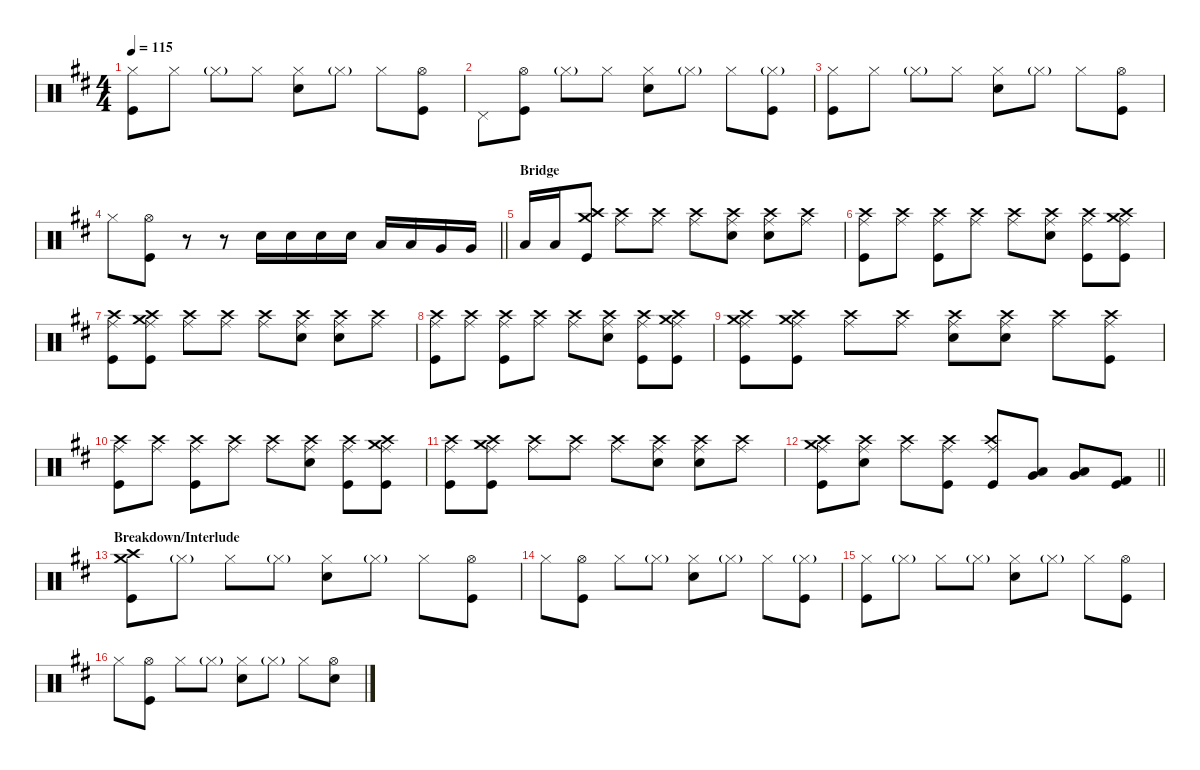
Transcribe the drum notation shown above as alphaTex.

\defaultSystemsLayout 4
\hideDynamics
\bracketExtendMode nobrackets
\singleTrackTrackNamePolicy hidden
\multiTrackTrackNamePolicy hidden
\firstSystemTrackNameMode fullname
\firstSystemTrackNameOrientation horizontal
\otherSystemsTrackNameOrientation horizontal
\track ("Aaron Harris" "drm.") {instrument percussion}
\staff {score}
\articulation defaults
\ts (4 4)
\tempo 115
\clef neutral
\ks bminor
("Hi-Hat (closed)"{acc forcenatural} "Kick (hit)"{acc forcenatural}).8{dy f beam Down} "Hi-Hat (closed)"{acc forcenatural}.8{beam Down} "Hi-Hat (closed)"{g acc forcenatural}.8{dy mf beam Down} "Hi-Hat (closed)"{acc forcenatural}.8{dy f beam Down} ("Hi-Hat (closed)"{acc forcenatural} "Snare (hit) 2"{acc forcenatural}).8{beam Down} "Hi-Hat (closed)"{g acc forcenatural}.8{dy mf beam Down} "Hi-Hat (closed)"{acc forcenatural}.8{dy f beam Down} ("Hi-Hat (open)"{acc forcenatural} "Kick (hit)"{acc forcenatural}).8{beam Down} |
"Pedal Hi-Hat (hit)"{acc forcenatural}.8{beam Down} ("Hi-Hat (open)"{acc forcenatural} "Kick (hit)"{acc forcenatural}).8{beam Down} "Hi-Hat (closed)"{g acc forcenatural}.8{dy mf beam Down} "Hi-Hat (closed)"{acc forcenatural}.8{dy f beam Down} ("Hi-Hat (closed)"{acc forcenatural} "Snare (hit) 2"{acc forcenatural}).8{beam Down} "Hi-Hat (closed)"{g acc forcenatural}.8{dy mf beam Down} "Hi-Hat (closed)"{acc forcenatural}.8{dy f beam Down} ("Hi-Hat (closed)"{g acc forcenatural} "Kick (hit)"{acc forcenatural}).8{beam Down} |
("Hi-Hat (closed)"{acc forcenatural} "Kick (hit)"{acc forcenatural}).8{beam Down} "Hi-Hat (closed)"{acc forcenatural}.8{beam Down} "Hi-Hat (closed)"{g acc forcenatural}.8{dy mf beam Down} "Hi-Hat (closed)"{acc forcenatural}.8{dy f beam Down} ("Hi-Hat (closed)"{acc forcenatural} "Snare (hit) 2"{acc forcenatural}).8{beam Down} "Hi-Hat (closed)"{g acc forcenatural}.8{dy mf beam Down} "Hi-Hat (closed)"{acc forcenatural}.8{dy f beam Down} ("Hi-Hat (open)"{acc forcenatural} "Kick (hit)"{acc forcenatural}).8{beam Down} |
\barLineRight lightlight "Hi-Hat (closed)"{acc forcenatural}.8{beam Down}
("Hi-Hat (open)"{acc forcenatural} "Kick (hit)"{acc forcenatural}).8{beam Down} r.8{beam Down} r.8{beam Down} "Snare (hit) 2"{acc forcenatural}.16{beam Down} "Snare (hit) 2"{acc forcenatural}.16{beam Down} "Snare (hit) 2"{acc forcenatural}.16{beam Down} "Snare (hit) 2"{acc forcenatural}.16{beam Down} "Low Tom (hit)"{acc forcenatural}.16{beam Up} "Low Tom (hit)"{acc forcenatural}.16{beam Up} "Very Low Tom (hit)"{acc forcenatural}.16{beam Up} "Very Low Tom (hit)"{acc forcenatural}.16{beam Up} |
\section ("" "Bridge")
"Low Floor Tom (hit)"{acc forcenatural}.16{beam Up} "Low Floor Tom (hit)"{acc forcenatural}.16{beam Up} ("Crash medium (hit)"{acc forcenatural} "Crash high (hit)"{acc forcenatural} "Kick (hit)"{acc forcenatural}).8{beam Up} ("Crash high (hit)"{acc forcenatural} "Ride (middle)"{acc forcenatural}).8{dy mp beam Down} ("Crash high (hit)"{acc forcenatural} "Ride (middle)"{acc forcenatural}).8{beam Down} ("Crash high (hit)"{acc forcenatural} "Ride (middle)"{acc forcenatural}).8{beam Down} ("Crash high (hit)"{acc forcenatural} "Ride (middle)"{acc forcenatural} "Snare (hit) 2"{acc forcenatural}).8{dy mf beam Down} ("Crash high (hit)"{acc forcenatural} "Ride (middle)"{acc forcenatural} "Snare (hit) 2"{acc forcenatural}).8{dy mp beam Down} ("Crash high (hit)"{acc forcenatural} "Ride (middle)"{acc forcenatural}).8{beam Down} |
("Crash high (hit)"{acc forcenatural} "Ride (middle)"{acc forcenatural} "Kick (hit)"{acc forcenatural}).8{dy p beam Down} ("Crash high (hit)"{acc forcenatural} "Ride (middle)"{acc forcenatural}).8{dy mp beam Down} ("Crash high (hit)"{acc forcenatural} "Ride (middle)"{acc forcenatural} "Kick (hit)"{acc forcenatural}).8{beam Down} ("Crash high (hit)"{acc forcenatural} "Ride (middle)"{acc forcenatural}).8{beam Down} ("Crash high (hit)"{acc forcenatural} "Ride (middle)"{acc forcenatural}).8{dy p beam Down} ("Crash high (hit)"{acc forcenatural} "Ride (middle)"{acc forcenatural} "Snare (hit) 2"{acc forcenatural}).8{dy mf beam Down} ("Crash high (hit)"{acc forcenatural} "Ride (middle)"{acc forcenatural} "Kick (hit)"{acc forcenatural}).8{dy mp beam Down} ("Crash medium (hit)"{acc forcenatural} "Crash high (hit)"{acc forcenatural} "Ride (middle)"{acc forcenatural} "Kick (hit)"{acc forcenatural}).8{beam Down} |
("Crash high (hit)"{acc forcenatural} "Ride (middle)"{acc forcenatural} "Kick (hit)"{acc forcenatural}).8{dy p beam Down} ("Crash medium (hit)"{acc forcenatural} "Crash high (hit)"{acc forcenatural} "Ride (middle)"{acc forcenatural} "Kick (hit)"{acc forcenatural}).8{dy f beam Down} ("Crash high (hit)"{acc forcenatural} "Ride (middle)"{acc forcenatural}).8{dy mp beam Down} ("Crash high (hit)"{acc forcenatural} "Ride (middle)"{acc forcenatural}).8{beam Down} ("Crash high (hit)"{acc forcenatural} "Ride (middle)"{acc forcenatural}).8{beam Down} ("Crash high (hit)"{acc forcenatural} "Ride (middle)"{acc forcenatural} "Snare (hit) 2"{acc forcenatural}).8{beam Down} ("Crash high (hit)"{acc forcenatural} "Ride (middle)"{acc forcenatural} "Snare (hit) 2"{acc forcenatural}).8{beam Down} ("Crash high (hit)"{acc forcenatural} "Ride (middle)"{acc forcenatural}).8{beam Down} |
("Crash high (hit)"{acc forcenatural} "Ride (middle)"{acc forcenatural} "Kick (hit)"{acc forcenatural}).8{dy p beam Down} ("Crash high (hit)"{acc forcenatural} "Ride (middle)"{acc forcenatural}).8{dy mp beam Down} ("Crash high (hit)"{acc forcenatural} "Ride (middle)"{acc forcenatural} "Kick (hit)"{acc forcenatural}).8{beam Down} ("Crash high (hit)"{acc forcenatural} "Ride (middle)"{acc forcenatural}).8{beam Down} ("Crash high (hit)"{acc forcenatural} "Ride (middle)"{acc forcenatural}).8{dy p beam Down} ("Crash high (hit)"{acc forcenatural} "Ride (middle)"{acc forcenatural} "Snare (hit) 2"{acc forcenatural}).8{dy mf beam Down} ("Crash high (hit)"{acc forcenatural} "Ride (middle)"{acc forcenatural} "Kick (hit)"{acc forcenatural}).8{dy mp beam Down} ("Crash medium (hit)"{acc forcenatural} "Crash high (hit)"{acc forcenatural} "Ride (middle)"{acc forcenatural} "Kick (hit)"{acc forcenatural}).8{beam Down} |
("Crash medium (hit)"{acc forcenatural} "Crash high (hit)"{acc forcenatural} "Ride (middle)"{acc forcenatural} "Kick (hit)"{acc forcenatural}).8{dy f beam Down} ("Crash medium (hit)"{acc forcenatural} "Crash high (hit)"{acc forcenatural} "Ride (middle)"{acc forcenatural} "Kick (hit)"{acc forcenatural}).8{beam Down} ("Crash high (hit)"{acc forcenatural} "Ride (middle)"{acc forcenatural}).8{dy mp beam Down} ("Crash high (hit)"{acc forcenatural} "Ride (middle)"{acc forcenatural}).8{beam Down} ("Crash high (hit)"{acc forcenatural} "Ride (middle)"{acc forcenatural} "Snare (hit) 2"{acc forcenatural}).8{beam Down} ("Crash high (hit)"{acc forcenatural} "Ride (middle)"{acc forcenatural} "Snare (hit) 2"{acc forcenatural}).8{beam Down} ("Crash high (hit)"{acc forcenatural} "Ride (middle)"{acc forcenatural}).8{beam Down} ("Crash high (hit)"{acc forcenatural} "Ride (middle)"{acc forcenatural} "Kick (hit)"{acc forcenatural}).8{beam Down} |
("Crash high (hit)"{acc forcenatural} "Ride (middle)"{acc forcenatural} "Kick (hit)"{acc forcenatural}).8{dy p beam Down} ("Crash high (hit)"{acc forcenatural} "Ride (middle)"{acc forcenatural}).8{dy mp beam Down} ("Crash high (hit)"{acc forcenatural} "Ride (middle)"{acc forcenatural} "Kick (hit)"{acc forcenatural}).8{beam Down} ("Crash high (hit)"{acc forcenatural} "Ride (middle)"{acc forcenatural}).8{beam Down} ("Crash high (hit)"{acc forcenatural} "Ride (middle)"{acc forcenatural}).8{dy p beam Down} ("Crash high (hit)"{acc forcenatural} "Ride (middle)"{acc forcenatural} "Snare (hit) 2"{acc forcenatural}).8{dy mf beam Down} ("Crash high (hit)"{acc forcenatural} "Ride (middle)"{acc forcenatural} "Kick (hit)"{acc forcenatural}).8{dy mp beam Down} ("Crash medium (hit)"{acc forcenatural} "Crash high (hit)"{acc forcenatural} "Ride (middle)"{acc forcenatural} "Kick (hit)"{acc forcenatural}).8{beam Down} |
("Crash high (hit)"{acc forcenatural} "Ride (middle)"{acc forcenatural} "Kick (hit)"{acc forcenatural}).8{dy p beam Down} ("Crash medium (hit)"{acc forcenatural} "Crash high (hit)"{acc forcenatural} "Ride (middle)"{acc forcenatural} "Kick (hit)"{acc forcenatural}).8{dy f beam Down} ("Crash high (hit)"{acc forcenatural} "Ride (middle)"{acc forcenatural}).8{dy mp beam Down} ("Crash high (hit)"{acc forcenatural} "Ride (middle)"{acc forcenatural}).8{beam Down} ("Crash high (hit)"{acc forcenatural} "Ride (middle)"{acc forcenatural}).8{beam Down} ("Crash high (hit)"{acc forcenatural} "Ride (middle)"{acc forcenatural} "Snare (hit) 2"{acc forcenatural}).8{beam Down} ("Crash high (hit)"{acc forcenatural} "Ride (middle)"{acc forcenatural} "Snare (hit) 2"{acc forcenatural}).8{beam Down} ("Crash high (hit)"{acc forcenatural} "Ride (middle)"{acc forcenatural}).8{beam Down} |
\barLineRight lightlight
("Crash medium (hit)"{acc forcenatural} "Crash high (hit)"{acc forcenatural} "Ride (middle)"{acc forcenatural} "Kick (hit)"{acc forcenatural}).8{dy f beam Down} ("Crash high (hit)"{acc forcenatural} "Ride (middle)"{acc forcenatural} "Snare (hit) 2"{acc forcenatural}).8{dy mp beam Down} ("Crash high (hit)"{acc forcenatural} "Ride (middle)"{acc forcenatural}).8{beam Down} ("Crash high (hit)"{acc forcenatural} "Ride (middle)"{acc forcenatural} "Kick (hit)"{acc forcenatural}).8{beam Down} ("Crash high (hit)"{acc forcenatural} "Ride (middle)"{acc forcenatural} "Kick (hit)"{acc forcenatural}).8{dy p beam Up} ("Low Tom (hit)"{acc forcenatural} "Very Low Tom (hit)"{acc forcenatural}).8{dy f beam Up} ("Low Tom (hit)"{acc forcenatural} "Very Low Tom (hit)"{acc forcenatural}).8{beam Up} ("Kick (hit) 2"{acc forcenatural} "Kick (hit)"{acc forcenatural}).8{beam Up} |
\section ("" "Breakdown/Interlude")
("Crash medium (hit)"{acc forcenatural} "Crash high (hit)"{acc forcenatural} "Kick (hit)"{acc forcenatural}).8{beam Down} "Hi-Hat (closed)"{g acc forcenatural}.8{dy mf beam Down} "Hi-Hat (closed)"{acc forcenatural}.8{dy f beam Down} "Hi-Hat (closed)"{g acc forcenatural}.8{dy mf beam Down} ("Hi-Hat (closed)"{acc forcenatural} "Snare (hit) 2"{acc forcenatural}).8{dy f beam Down} "Hi-Hat (closed)"{g acc forcenatural}.8{dy mf beam Down} "Hi-Hat (closed)"{acc forcenatural}.8{dy f beam Down} ("Hi-Hat (open)"{acc forcenatural} "Kick (hit)"{acc forcenatural}).8{beam Down} |
"Hi-Hat (closed)"{acc forcenatural}.8{beam Down} ("Hi-Hat (open)"{acc forcenatural} "Kick (hit)"{acc forcenatural}).8{beam Down} "Hi-Hat (closed)"{acc forcenatural}.8{beam Down} "Hi-Hat (closed)"{g acc forcenatural}.8{dy mf beam Down} ("Hi-Hat (closed)"{acc forcenatural} "Snare (hit) 2"{acc forcenatural}).8{dy f beam Down} "Hi-Hat (closed)"{g acc forcenatural}.8{dy mf beam Down} "Hi-Hat (closed)"{acc forcenatural}.8{dy f beam Down} ("Hi-Hat (closed)"{g acc forcenatural} "Kick (hit)"{acc forcenatural}).8{beam Down} |
("Hi-Hat (closed)"{acc forcenatural} "Kick (hit)"{acc forcenatural}).8{beam Down} "Hi-Hat (closed)"{g acc forcenatural}.8{dy mf beam Down} "Hi-Hat (closed)"{acc forcenatural}.8{dy f beam Down} "Hi-Hat (closed)"{g acc forcenatural}.8{dy mf beam Down} ("Hi-Hat (closed)"{acc forcenatural} "Snare (hit) 2"{acc forcenatural}).8{dy f beam Down} "Hi-Hat (closed)"{g acc forcenatural}.8{dy mf beam Down} "Hi-Hat (closed)"{acc forcenatural}.8{dy f beam Down} ("Hi-Hat (open)"{acc forcenatural} "Kick (hit)"{acc forcenatural}).8{beam Down} |
"Hi-Hat (closed)"{acc forcenatural}.8{beam Down} ("Hi-Hat (open)"{acc forcenatural} "Kick (hit)"{acc forcenatural}).8{beam Down} "Hi-Hat (closed)"{acc forcenatural}.8{beam Down} "Hi-Hat (closed)"{g acc forcenatural}.8{dy mf beam Down} ("Hi-Hat (closed)"{acc forcenatural} "Snare (hit) 2"{acc forcenatural}).8{dy f beam Down} "Hi-Hat (closed)"{g acc forcenatural}.8{dy mf beam Down} "Hi-Hat (closed)"{acc forcenatural}.8{dy f beam Down} ("Hi-Hat (open)"{acc forcenatural} "Snare (hit) 2"{acc forcenatural}).8{beam Down}
